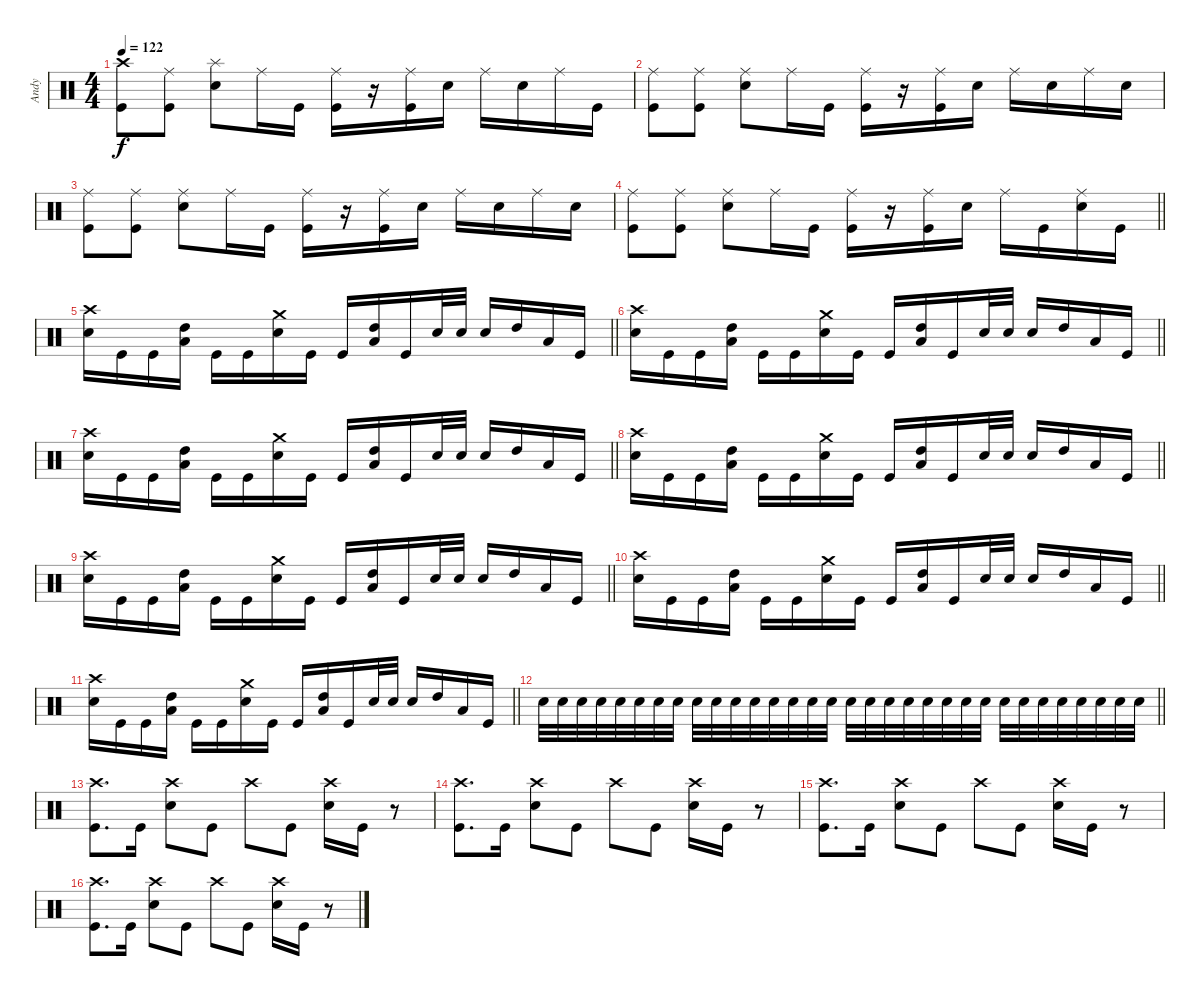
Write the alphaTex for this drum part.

\track ("Andy" "Andy") {instrument percussion}
\staff {score}
\articulation defaults
\ts (4 4)
\tempo 122
\clef neutral
\ks c
("Kick (hit)" "Crash high (hit)").8{dy f} ("Ride (middle)" "Kick (hit)").8 ("Snare (hit) 2" "Splash (hit)").8 "Ride (middle)".16 "Kick (hit)".16 ("Kick (hit)" "Ride (middle)").16 r.16 ("Ride (middle)" "Kick (hit)").16 "Snare (hit) 2".16 "Ride (middle)".16 "Snare (hit) 2".16 "Ride (middle)".16 "Kick (hit)".16 |
("Kick (hit)" "Ride (middle)").8 ("Ride (middle)" "Kick (hit)").8 ("Snare (hit) 2" "Ride (middle)").8 "Ride (middle)".16 "Kick (hit)".16 ("Kick (hit)" "Ride (middle)").16 r.16 ("Ride (middle)" "Kick (hit)").16 "Snare (hit) 2".16 "Ride (middle)".16 "Snare (hit) 2".16 "Ride (middle)".16 "Snare (hit) 2".16 |
("Kick (hit)" "Ride (middle)").8 ("Ride (middle)" "Kick (hit)").8 ("Snare (hit) 2" "Ride (middle)").8 "Ride (middle)".16 "Kick (hit)".16 ("Kick (hit)" "Ride (middle)").16 r.16 ("Ride (middle)" "Kick (hit)").16 "Snare (hit) 2".16 "Ride (middle)".16 "Snare (hit) 2".16 "Ride (middle)".16 "Snare (hit) 2".16 |
\barLineRight lightlight
("Kick (hit)" "Ride (middle)").8 ("Ride (middle)" "Kick (hit)").8 ("Snare (hit) 2" "Ride (middle)").8 "Ride (middle)".16 "Kick (hit)".16 ("Kick (hit)" "Ride (middle)").16 r.16 ("Ride (middle)" "Kick (hit)").16 "Snare (hit) 2".16 "Ride (middle)".16 "Kick (hit)".16 ("Ride (middle)" "Snare (hit) 2").16 "Kick (hit)".16 |
\section ("" "")
\barLineRight lightlight
("Snare (hit) 2" "Crash high (hit)").16 "Kick (hit)".16 "Kick (hit)".16 ("High Tom (hit)" "Low Floor Tom (hit)").16 "Kick (hit)".16 "Kick (hit)".16 ("Snare (hit) 2" "Crash medium (hit)").16 "Kick (hit)".16 "Kick (hit)".16 ("High Tom (hit)" "Low Floor Tom (hit)").16 "Kick (hit)".16 "Snare (hit) 2".32 "Snare (hit) 2".32 "Snare (hit) 2".16 "High Tom (hit)".16 "Low Floor Tom (hit)".16 "Kick (hit)".16 |
\barLineRight lightlight
("Snare (hit) 2" "Crash high (hit)").16 "Kick (hit)".16 "Kick (hit)".16 ("High Tom (hit)" "Low Floor Tom (hit)").16 "Kick (hit)".16 "Kick (hit)".16 ("Snare (hit) 2" "Crash medium (hit)").16 "Kick (hit)".16 "Kick (hit)".16 ("High Tom (hit)" "Low Floor Tom (hit)").16 "Kick (hit)".16 "Snare (hit) 2".32 "Snare (hit) 2".32 "Snare (hit) 2".16 "High Tom (hit)".16 "Low Floor Tom (hit)".16 "Kick (hit)".16 |
\barLineRight lightlight
("Snare (hit) 2" "Crash high (hit)").16 "Kick (hit)".16 "Kick (hit)".16 ("High Tom (hit)" "Low Floor Tom (hit)").16 "Kick (hit)".16 "Kick (hit)".16 ("Snare (hit) 2" "Crash medium (hit)").16 "Kick (hit)".16 "Kick (hit)".16 ("High Tom (hit)" "Low Floor Tom (hit)").16 "Kick (hit)".16 "Snare (hit) 2".32 "Snare (hit) 2".32 "Snare (hit) 2".16 "High Tom (hit)".16 "Low Floor Tom (hit)".16 "Kick (hit)".16 |
\barLineRight lightlight
("Snare (hit) 2" "Crash high (hit)").16 "Kick (hit)".16 "Kick (hit)".16 ("High Tom (hit)" "Low Floor Tom (hit)").16 "Kick (hit)".16 "Kick (hit)".16 ("Snare (hit) 2" "Crash medium (hit)").16 "Kick (hit)".16 "Kick (hit)".16 ("High Tom (hit)" "Low Floor Tom (hit)").16 "Kick (hit)".16 "Snare (hit) 2".32 "Snare (hit) 2".32 "Snare (hit) 2".16 "High Tom (hit)".16 "Low Floor Tom (hit)".16 "Kick (hit)".16 |
\barLineRight lightlight
("Snare (hit) 2" "Crash high (hit)").16 "Kick (hit)".16 "Kick (hit)".16 ("High Tom (hit)" "Low Floor Tom (hit)").16 "Kick (hit)".16 "Kick (hit)".16 ("Snare (hit) 2" "Crash medium (hit)").16 "Kick (hit)".16 "Kick (hit)".16 ("High Tom (hit)" "Low Floor Tom (hit)").16 "Kick (hit)".16 "Snare (hit) 2".32 "Snare (hit) 2".32 "Snare (hit) 2".16 "High Tom (hit)".16 "Low Floor Tom (hit)".16 "Kick (hit)".16 |
\barLineRight lightlight
("Snare (hit) 2" "Crash high (hit)").16 "Kick (hit)".16 "Kick (hit)".16 ("High Tom (hit)" "Low Floor Tom (hit)").16 "Kick (hit)".16 "Kick (hit)".16 ("Snare (hit) 2" "Crash medium (hit)").16 "Kick (hit)".16 "Kick (hit)".16 ("High Tom (hit)" "Low Floor Tom (hit)").16 "Kick (hit)".16 "Snare (hit) 2".32 "Snare (hit) 2".32 "Snare (hit) 2".16 "High Tom (hit)".16 "Low Floor Tom (hit)".16 "Kick (hit)".16 |
\barLineRight lightlight
("Snare (hit) 2" "Crash high (hit)").16 "Kick (hit)".16 "Kick (hit)".16 ("High Tom (hit)" "Low Floor Tom (hit)").16 "Kick (hit)".16 "Kick (hit)".16 ("Snare (hit) 2" "Crash medium (hit)").16 "Kick (hit)".16 "Kick (hit)".16 ("High Tom (hit)" "Low Floor Tom (hit)").16 "Kick (hit)".16 "Snare (hit) 2".32 "Snare (hit) 2".32 "Snare (hit) 2".16 "High Tom (hit)".16 "Low Floor Tom (hit)".16 "Kick (hit)".16 |
\barLineRight lightlight "Snare (hit) 2".32 "Snare (hit) 2".32 "Snare (hit) 2".32 "Snare (hit) 2".32 "Snare (hit) 2".32 "Snare (hit) 2".32 "Snare (hit) 2".32 "Snare (hit) 2".32 "Snare (hit) 2".32 "Snare (hit) 2".32 "Snare (hit) 2".32 "Snare (hit) 2".32 "Snare (hit) 2".32 "Snare (hit) 2".32 "Snare (hit) 2".32 "Snare (hit) 2".32 "Snare (hit) 2".32 "Snare (hit) 2".32 "Snare (hit) 2".32 "Snare (hit) 2".32 "Snare (hit) 2".32 "Snare (hit) 2".32 "Snare (hit) 2".32 "Snare (hit) 2".32 "Snare (hit) 2".32 "Snare (hit) 2".32 "Snare (hit) 2".32 "Snare (hit) 2".32 "Snare (hit) 2".32 "Snare (hit) 2".32 "Snare (hit) 2".32 "Snare (hit) 2".32
|
("Kick (hit)" "Crash high (hit)").8{d} "Kick (hit)".16 ("Snare (hit) 2" "Crash high (hit)").8 "Kick (hit)".8 "Crash high (hit)".8 "Kick (hit)".8 ("Snare (hit) 2" "Crash high (hit)").16 "Kick (hit)".16 r.8 |
("Kick (hit)" "Crash high (hit)").8{d} "Kick (hit)".16 ("Snare (hit) 2" "Crash high (hit)").8 "Kick (hit)".8 "Crash high (hit)".8 "Kick (hit)".8 ("Snare (hit) 2" "Crash high (hit)").16 "Kick (hit)".16 r.8 |
("Kick (hit)" "Crash high (hit)").8{d} "Kick (hit)".16 ("Snare (hit) 2" "Crash high (hit)").8 "Kick (hit)".8 "Crash high (hit)".8 "Kick (hit)".8 ("Snare (hit) 2" "Crash high (hit)").16 "Kick (hit)".16 r.8 |
("Kick (hit)" "Crash high (hit)").8{d} "Kick (hit)".16 ("Snare (hit) 2" "Crash high (hit)").8 "Kick (hit)".8 "Crash high (hit)".8 "Kick (hit)".8 ("Snare (hit) 2" "Crash high (hit)").16 "Kick (hit)".16 r.8
